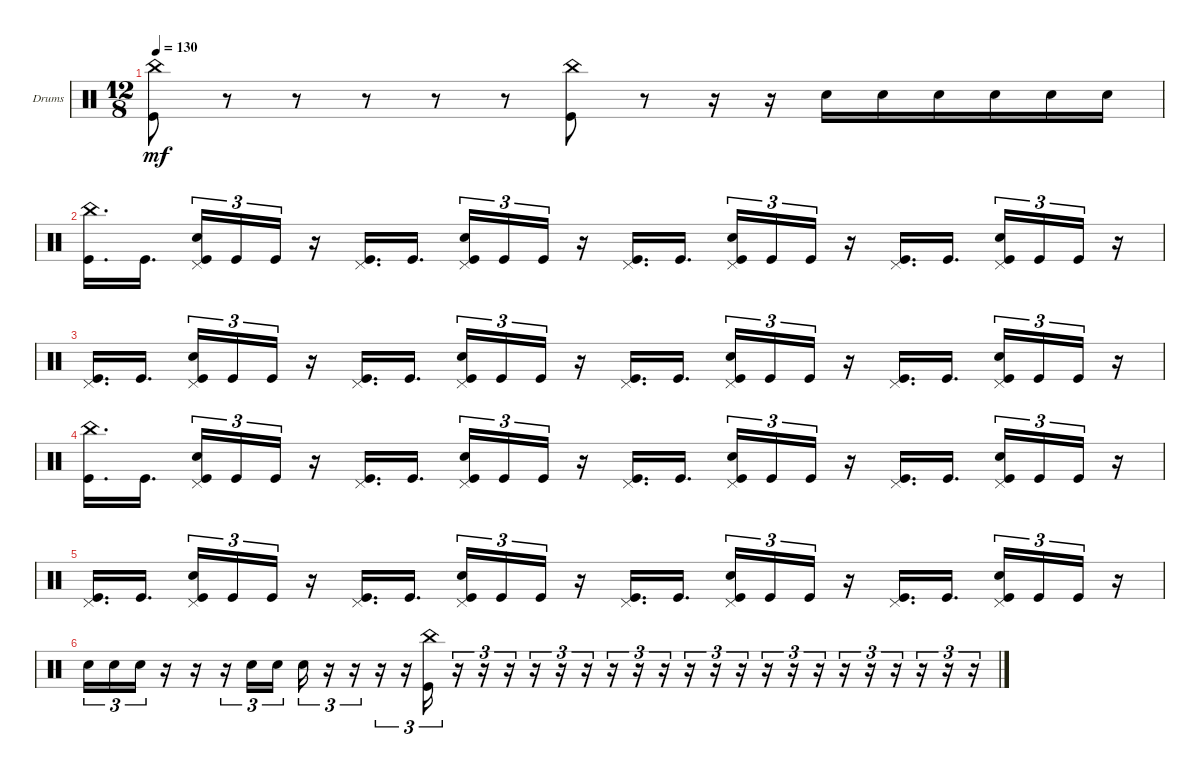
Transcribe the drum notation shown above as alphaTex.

\defaultSystemsLayout 4
\bracketExtendMode groupsimilarinstruments
\firstSystemTrackNameOrientation horizontal
\otherSystemsTrackNameOrientation horizontal
\track ("Drumkit" "Drums") {instrument percussion}
\staff {score}
\articulation defaults
\ts (12 8)
\tempo 130
\clef neutral
\ks c
("Kick (hit)" "China (hit)").8{dy mf} r.8 r.8 r.8 r.8 r.8 ("Kick (hit)" "China (hit)").8 r.8 r.16 r.16 "Snare (hit) 2".16 "Snare (hit) 2".16 "Snare (hit) 2".16 "Snare (hit) 2".16 "Snare (hit) 2".16 "Snare (hit) 2".16 |
("Kick (hit)" "China (hit)").16{d} "Kick (hit)".16{d} ("Kick (hit)" "Pedal Hi-Hat (hit)" "Snare (hit) 2").16{tu (3 2)} "Kick (hit)".16{tu (3 2)} "Kick (hit)".16{tu (3 2)} r.16 ("Kick (hit)" "Pedal Hi-Hat (hit)").16{d} "Kick (hit)".16{d} ("Kick (hit)" "Pedal Hi-Hat (hit)" "Snare (hit) 2").16{tu (3 2)} "Kick (hit)".16{tu (3 2)} "Kick (hit)".16{tu (3 2)} r.16 ("Kick (hit)" "Pedal Hi-Hat (hit)").16{d} "Kick (hit)".16{d} ("Kick (hit)" "Pedal Hi-Hat (hit)" "Snare (hit) 2").16{tu (3 2)} "Kick (hit)".16{tu (3 2)} "Kick (hit)".16{tu (3 2)} r.16 ("Kick (hit)" "Pedal Hi-Hat (hit)").16{d} "Kick (hit)".16{d} ("Kick (hit)" "Pedal Hi-Hat (hit)" "Snare (hit) 2").16{tu (3 2)} "Kick (hit)".16{tu (3 2)} "Kick (hit)".16{tu (3 2)} r.16 |
("Kick (hit)" "Pedal Hi-Hat (hit)").16{d} "Kick (hit)".16{d} ("Kick (hit)" "Pedal Hi-Hat (hit)" "Snare (hit) 2").16{tu (3 2)} "Kick (hit)".16{tu (3 2)} "Kick (hit)".16{tu (3 2)} r.16 ("Kick (hit)" "Pedal Hi-Hat (hit)").16{d} "Kick (hit)".16{d} ("Kick (hit)" "Pedal Hi-Hat (hit)" "Snare (hit) 2").16{tu (3 2)} "Kick (hit)".16{tu (3 2)} "Kick (hit)".16{tu (3 2)} r.16 ("Kick (hit)" "Pedal Hi-Hat (hit)").16{d} "Kick (hit)".16{d} ("Kick (hit)" "Pedal Hi-Hat (hit)" "Snare (hit) 2").16{tu (3 2)} "Kick (hit)".16{tu (3 2)} "Kick (hit)".16{tu (3 2)} r.16 ("Kick (hit)" "Pedal Hi-Hat (hit)").16{d} "Kick (hit)".16{d} ("Kick (hit)" "Pedal Hi-Hat (hit)" "Snare (hit) 2").16{tu (3 2)} "Kick (hit)".16{tu (3 2)} "Kick (hit)".16{tu (3 2)} r.16 |
("Kick (hit)" "China (hit)").16{d} "Kick (hit)".16{d} ("Kick (hit)" "Pedal Hi-Hat (hit)" "Snare (hit) 2").16{tu (3 2)} "Kick (hit)".16{tu (3 2)} "Kick (hit)".16{tu (3 2)} r.16 ("Kick (hit)" "Pedal Hi-Hat (hit)").16{d} "Kick (hit)".16{d} ("Kick (hit)" "Pedal Hi-Hat (hit)" "Snare (hit) 2").16{tu (3 2)} "Kick (hit)".16{tu (3 2)} "Kick (hit)".16{tu (3 2)} r.16 ("Kick (hit)" "Pedal Hi-Hat (hit)").16{d} "Kick (hit)".16{d} ("Kick (hit)" "Pedal Hi-Hat (hit)" "Snare (hit) 2").16{tu (3 2)} "Kick (hit)".16{tu (3 2)} "Kick (hit)".16{tu (3 2)} r.16 ("Kick (hit)" "Pedal Hi-Hat (hit)").16{d} "Kick (hit)".16{d} ("Kick (hit)" "Pedal Hi-Hat (hit)" "Snare (hit) 2").16{tu (3 2)} "Kick (hit)".16{tu (3 2)} "Kick (hit)".16{tu (3 2)} r.16 |
("Kick (hit)" "Pedal Hi-Hat (hit)").16{d} "Kick (hit)".16{d} ("Kick (hit)" "Pedal Hi-Hat (hit)" "Snare (hit) 2").16{tu (3 2)} "Kick (hit)".16{tu (3 2)} "Kick (hit)".16{tu (3 2)} r.16 ("Kick (hit)" "Pedal Hi-Hat (hit)").16{d} "Kick (hit)".16{d} ("Kick (hit)" "Pedal Hi-Hat (hit)" "Snare (hit) 2").16{tu (3 2)} "Kick (hit)".16{tu (3 2)} "Kick (hit)".16{tu (3 2)} r.16 ("Kick (hit)" "Pedal Hi-Hat (hit)").16{d} "Kick (hit)".16{d} ("Kick (hit)" "Pedal Hi-Hat (hit)" "Snare (hit) 2").16{tu (3 2)} "Kick (hit)".16{tu (3 2)} "Kick (hit)".16{tu (3 2)} r.16 ("Kick (hit)" "Pedal Hi-Hat (hit)").16{d} "Kick (hit)".16{d} ("Kick (hit)" "Pedal Hi-Hat (hit)" "Snare (hit) 2").16{tu (3 2)} "Kick (hit)".16{tu (3 2)} "Kick (hit)".16{tu (3 2)} r.16 |
"Snare (hit) 2".16{tu (3 2)} "Snare (hit) 2".16{tu (3 2)} "Snare (hit) 2".16{tu (3 2)} r.16 r.16 r.16{tu (3 2)} "Snare (hit) 2".16{tu (3 2)} "Snare (hit) 2".16{tu (3 2)} "Snare (hit) 2".16{tu (3 2)} r.16{tu (3 2)} r.16{tu (3 2)} r.16{tu (3 2)} r.16{tu (3 2)} ("China (hit)" "Kick (hit)").16{tu (3 2)} r.16{tu (3 2)} r.16{tu (3 2)} r.16{tu (3 2)} r.16{tu (3 2)} r.16{tu (3 2)} r.16{tu (3 2)} r.16{tu (3 2)} r.16{tu (3 2)} r.16{tu (3 2)} r.16{tu (3 2)} r.16{tu (3 2)} r.16{tu (3 2)} r.16{tu (3 2)} r.16{tu (3 2)} r.16{tu (3 2)} r.16{tu (3 2)} r.16{tu (3 2)} r.16{tu (3 2)} r.16{tu (3 2)} r.16{tu (3 2)} r.16{tu (3 2)}
